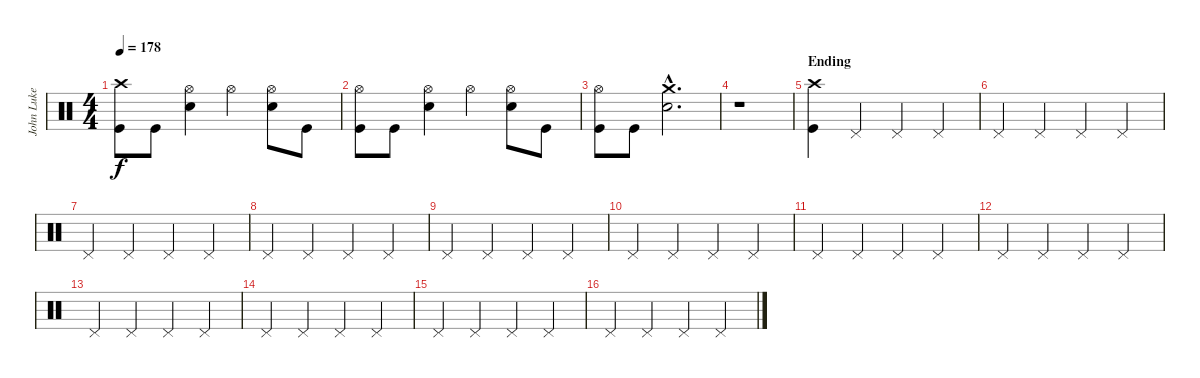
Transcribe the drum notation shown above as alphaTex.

\track ("John Luke (Drums)" "John Luke ") {instrument percussion}
\staff {score}
\articulation defaults
\ts (4 4)
\tempo 178
\clef neutral
\ks c
("Crash high (hit)" "Kick (hit)").8{dy f} "Kick (hit)".8 ("Hi-Hat (open)" "Electric Snare (hit)").4 "Hi-Hat (open)".4 ("Hi-Hat (open)" "Electric Snare (hit)").8 "Kick (hit)".8 |
("Hi-Hat (open)" "Kick (hit)").8 "Kick (hit)".8 ("Hi-Hat (open)" "Electric Snare (hit)").4 "Hi-Hat (open)".4 ("Hi-Hat (open)" "Electric Snare (hit)").8 "Kick (hit)".8 |
("Hi-Hat (open)" "Kick (hit)").8 "Kick (hit)".8 ("Crash medium (hit)"{hac} "Electric Snare (hit)"{hac}).2{d} |
r.1 |
\section ("" "Ending")
("Crash high (hit)" "Kick (hit)").4 "Pedal Hi-Hat (hit)".4 "Pedal Hi-Hat (hit)".4 "Pedal Hi-Hat (hit)".4 |
"Pedal Hi-Hat (hit)".4 "Pedal Hi-Hat (hit)".4 "Pedal Hi-Hat (hit)".4 "Pedal Hi-Hat (hit)".4 |
"Pedal Hi-Hat (hit)".4 "Pedal Hi-Hat (hit)".4 "Pedal Hi-Hat (hit)".4 "Pedal Hi-Hat (hit)".4 |
"Pedal Hi-Hat (hit)".4 "Pedal Hi-Hat (hit)".4 "Pedal Hi-Hat (hit)".4 "Pedal Hi-Hat (hit)".4 |
"Pedal Hi-Hat (hit)".4 "Pedal Hi-Hat (hit)".4 "Pedal Hi-Hat (hit)".4 "Pedal Hi-Hat (hit)".4 |
"Pedal Hi-Hat (hit)".4 "Pedal Hi-Hat (hit)".4 "Pedal Hi-Hat (hit)".4 "Pedal Hi-Hat (hit)".4 |
"Pedal Hi-Hat (hit)".4 "Pedal Hi-Hat (hit)".4 "Pedal Hi-Hat (hit)".4 "Pedal Hi-Hat (hit)".4 |
"Pedal Hi-Hat (hit)".4 "Pedal Hi-Hat (hit)".4 "Pedal Hi-Hat (hit)".4 "Pedal Hi-Hat (hit)".4 |
"Pedal Hi-Hat (hit)".4{volume 13} "Pedal Hi-Hat (hit)".4 "Pedal Hi-Hat (hit)".4 "Pedal Hi-Hat (hit)".4 |
"Pedal Hi-Hat (hit)".4 "Pedal Hi-Hat (hit)".4 "Pedal Hi-Hat (hit)".4 "Pedal Hi-Hat (hit)".4 |
"Pedal Hi-Hat (hit)".4{volume 11} "Pedal Hi-Hat (hit)".4 "Pedal Hi-Hat (hit)".4 "Pedal Hi-Hat (hit)".4 |
"Pedal Hi-Hat (hit)".4 "Pedal Hi-Hat (hit)".4 "Pedal Hi-Hat (hit)".4 "Pedal Hi-Hat (hit)".4
